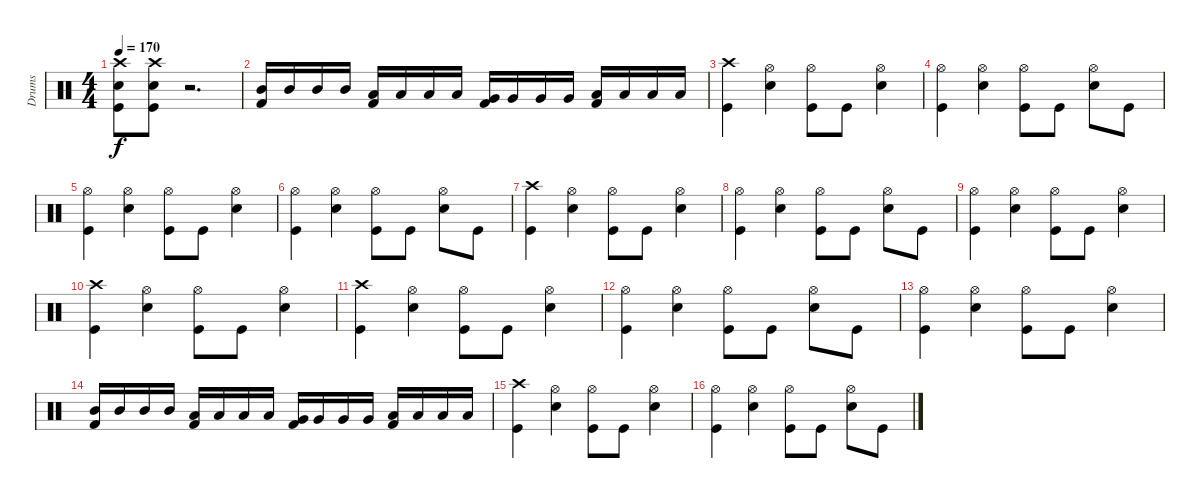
\track ("Drums" "Drums") {instrument percussion}
\staff {score}
\articulation defaults
\ts (4 4)
\tempo 170
\clef neutral
\ks c
("Crash high (hit)" "Electric Snare (hit)" "Kick (hit)").8{dy f} ("Crash high (hit)" "Electric Snare (hit)" "Kick (hit)").8 r.2{d} |
("Mid Tom (hit)" "Kick (hit) 2").16 "Mid Tom (hit)".16 "Mid Tom (hit)".16 "Mid Tom (hit)".16 ("Low Tom (hit)" "Kick (hit) 2").16 "Low Tom (hit)".16 "Low Tom (hit)".16 "Low Tom (hit)".16 ("Very Low Tom (hit)" "Kick (hit) 2").16 "Very Low Tom (hit)".16 "Very Low Tom (hit)".16 "Very Low Tom (hit)".16 ("Low Floor Tom (hit)" "Kick (hit) 2").16 "Low Floor Tom (hit)".16 "Low Floor Tom (hit)".16 "Low Floor Tom (hit)".16 |
("Crash high (hit)" "Kick (hit)").4 ("Hi-Hat (open)" "Electric Snare (hit)").4 ("Hi-Hat (open)" "Kick (hit)").8 "Kick (hit)".8 ("Hi-Hat (open)" "Electric Snare (hit)").4 |
("Hi-Hat (open)" "Kick (hit)").4 ("Hi-Hat (open)" "Electric Snare (hit)").4 ("Hi-Hat (open)" "Kick (hit)").8 "Kick (hit)".8 ("Hi-Hat (open)" "Electric Snare (hit)").8 "Kick (hit)".8 |
("Hi-Hat (open)" "Kick (hit)").4 ("Hi-Hat (open)" "Electric Snare (hit)").4 ("Hi-Hat (open)" "Kick (hit)").8 "Kick (hit)".8 ("Hi-Hat (open)" "Electric Snare (hit)").4 |
("Hi-Hat (open)" "Kick (hit)").4 ("Hi-Hat (open)" "Electric Snare (hit)").4 ("Hi-Hat (open)" "Kick (hit)").8 "Kick (hit)".8 ("Hi-Hat (open)" "Electric Snare (hit)").8 "Kick (hit)".8 |
("Crash high (hit)" "Kick (hit)").4 ("Hi-Hat (open)" "Electric Snare (hit)").4 ("Hi-Hat (open)" "Kick (hit)").8 "Kick (hit)".8 ("Hi-Hat (open)" "Electric Snare (hit)").4 |
("Hi-Hat (open)" "Kick (hit)").4 ("Hi-Hat (open)" "Electric Snare (hit)").4 ("Hi-Hat (open)" "Kick (hit)").8 "Kick (hit)".8 ("Hi-Hat (open)" "Electric Snare (hit)").8 "Kick (hit)".8 |
("Hi-Hat (open)" "Kick (hit)").4 ("Hi-Hat (open)" "Electric Snare (hit)").4 ("Hi-Hat (open)" "Kick (hit)").8 "Kick (hit)".8 ("Hi-Hat (open)" "Electric Snare (hit)").4 |
("Crash high (hit)" "Kick (hit)").4 ("Hi-Hat (open)" "Electric Snare (hit)").4 ("Hi-Hat (open)" "Kick (hit)").8 "Kick (hit)".8 ("Hi-Hat (open)" "Electric Snare (hit)").4 |
("Crash high (hit)" "Kick (hit)").4 ("Hi-Hat (open)" "Electric Snare (hit)").4 ("Hi-Hat (open)" "Kick (hit)").8 "Kick (hit)".8 ("Hi-Hat (open)" "Electric Snare (hit)").4 |
("Hi-Hat (open)" "Kick (hit)").4 ("Hi-Hat (open)" "Electric Snare (hit)").4 ("Hi-Hat (open)" "Kick (hit)").8 "Kick (hit)".8 ("Hi-Hat (open)" "Electric Snare (hit)").8 "Kick (hit)".8 |
("Hi-Hat (open)" "Kick (hit)").4 ("Hi-Hat (open)" "Electric Snare (hit)").4 ("Hi-Hat (open)" "Kick (hit)").8 "Kick (hit)".8 ("Hi-Hat (open)" "Electric Snare (hit)").4 |
("Mid Tom (hit)" "Kick (hit) 2").16 "Mid Tom (hit)".16 "Mid Tom (hit)".16 "Mid Tom (hit)".16 ("Low Tom (hit)" "Kick (hit) 2").16 "Low Tom (hit)".16 "Low Tom (hit)".16 "Low Tom (hit)".16 ("Very Low Tom (hit)" "Kick (hit) 2").16 "Very Low Tom (hit)".16 "Very Low Tom (hit)".16 "Very Low Tom (hit)".16 ("Low Floor Tom (hit)" "Kick (hit) 2").16 "Low Floor Tom (hit)".16 "Low Floor Tom (hit)".16 "Low Floor Tom (hit)".16 |
("Crash high (hit)" "Kick (hit)").4 ("Hi-Hat (open)" "Electric Snare (hit)").4 ("Hi-Hat (open)" "Kick (hit)").8 "Kick (hit)".8 ("Hi-Hat (open)" "Electric Snare (hit)").4 |
("Hi-Hat (open)" "Kick (hit)").4 ("Hi-Hat (open)" "Electric Snare (hit)").4 ("Hi-Hat (open)" "Kick (hit)").8 "Kick (hit)".8 ("Hi-Hat (open)" "Electric Snare (hit)").8 "Kick (hit)".8
